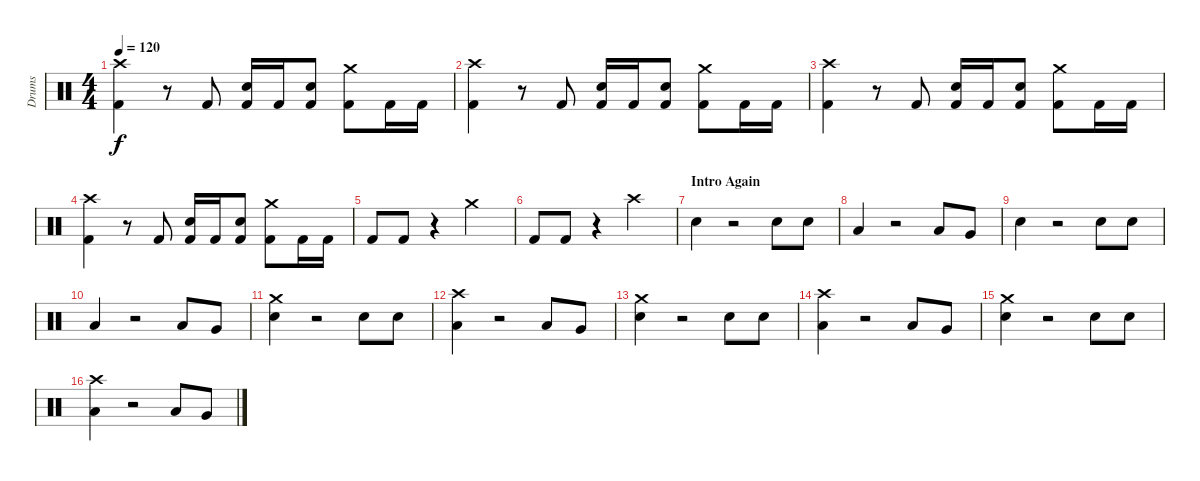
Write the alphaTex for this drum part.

\track ("Drums" "Drums") {instrument percussion}
\staff {score}
\articulation defaults
\ts (4 4)
\tempo 120
\clef neutral
\ks c
("Crash high (hit)" "Kick (hit) 2").4{dy f} r.8 "Kick (hit) 2".8 ("Snare (hit) 2" "Kick (hit) 2").16 "Kick (hit) 2".16 ("Snare (hit) 2" "Kick (hit) 2").8 ("Crash medium (hit)" "Kick (hit) 2").8 "Kick (hit) 2".16 "Kick (hit) 2".16 |
("Crash high (hit)" "Kick (hit) 2").4 r.8 "Kick (hit) 2".8 ("Snare (hit) 2" "Kick (hit) 2").16 "Kick (hit) 2".16 ("Snare (hit) 2" "Kick (hit) 2").8 ("Crash medium (hit)" "Kick (hit) 2").8 "Kick (hit) 2".16 "Kick (hit) 2".16 |
("Crash high (hit)" "Kick (hit) 2").4 r.8 "Kick (hit) 2".8 ("Snare (hit) 2" "Kick (hit) 2").16 "Kick (hit) 2".16 ("Snare (hit) 2" "Kick (hit) 2").8 ("Crash medium (hit)" "Kick (hit) 2").8 "Kick (hit) 2".16 "Kick (hit) 2".16 |
("Crash high (hit)" "Kick (hit) 2").4 r.8 "Kick (hit) 2".8 ("Snare (hit) 2" "Kick (hit) 2").16 "Kick (hit) 2".16 ("Snare (hit) 2" "Kick (hit) 2").8 ("Crash medium (hit)" "Kick (hit) 2").8 "Kick (hit) 2".16 "Kick (hit) 2".16 |
"Kick (hit) 2".8 "Kick (hit) 2".8 r.4 "Crash medium (hit)".2 |
"Kick (hit) 2".8 "Kick (hit) 2".8 r.4 "Crash high (hit)".2 |
\section ("" "Intro Again")
"Snare (hit) 2".4{volume 16} r.2 "Snare (hit) 2".8 "Snare (hit) 2".8 |
"Low Floor Tom (hit)".4 r.2 "Low Tom (hit)".8 "Very Low Tom (hit)".8 |
"Snare (hit) 2".4 r.2 "Snare (hit) 2".8 "Snare (hit) 2".8 |
"Low Floor Tom (hit)".4 r.2 "Low Tom (hit)".8 "Very Low Tom (hit)".8 |
("Crash medium (hit)" "Snare (hit) 2").4 r.2 "Snare (hit) 2".8 "Snare (hit) 2".8 |
("Crash high (hit)" "Low Floor Tom (hit)").4 r.2 "Low Tom (hit)".8 "Very Low Tom (hit)".8 |
("Crash medium (hit)" "Snare (hit) 2").4 r.2 "Snare (hit) 2".8 "Snare (hit) 2".8 |
("Crash high (hit)" "Low Floor Tom (hit)").4 r.2 "Low Tom (hit)".8 "Very Low Tom (hit)".8 |
("Crash medium (hit)" "Snare (hit) 2").4 r.2 "Snare (hit) 2".8 "Snare (hit) 2".8 |
("Crash high (hit)" "Low Floor Tom (hit)").4 r.2 "Low Tom (hit)".8 "Very Low Tom (hit)".8
